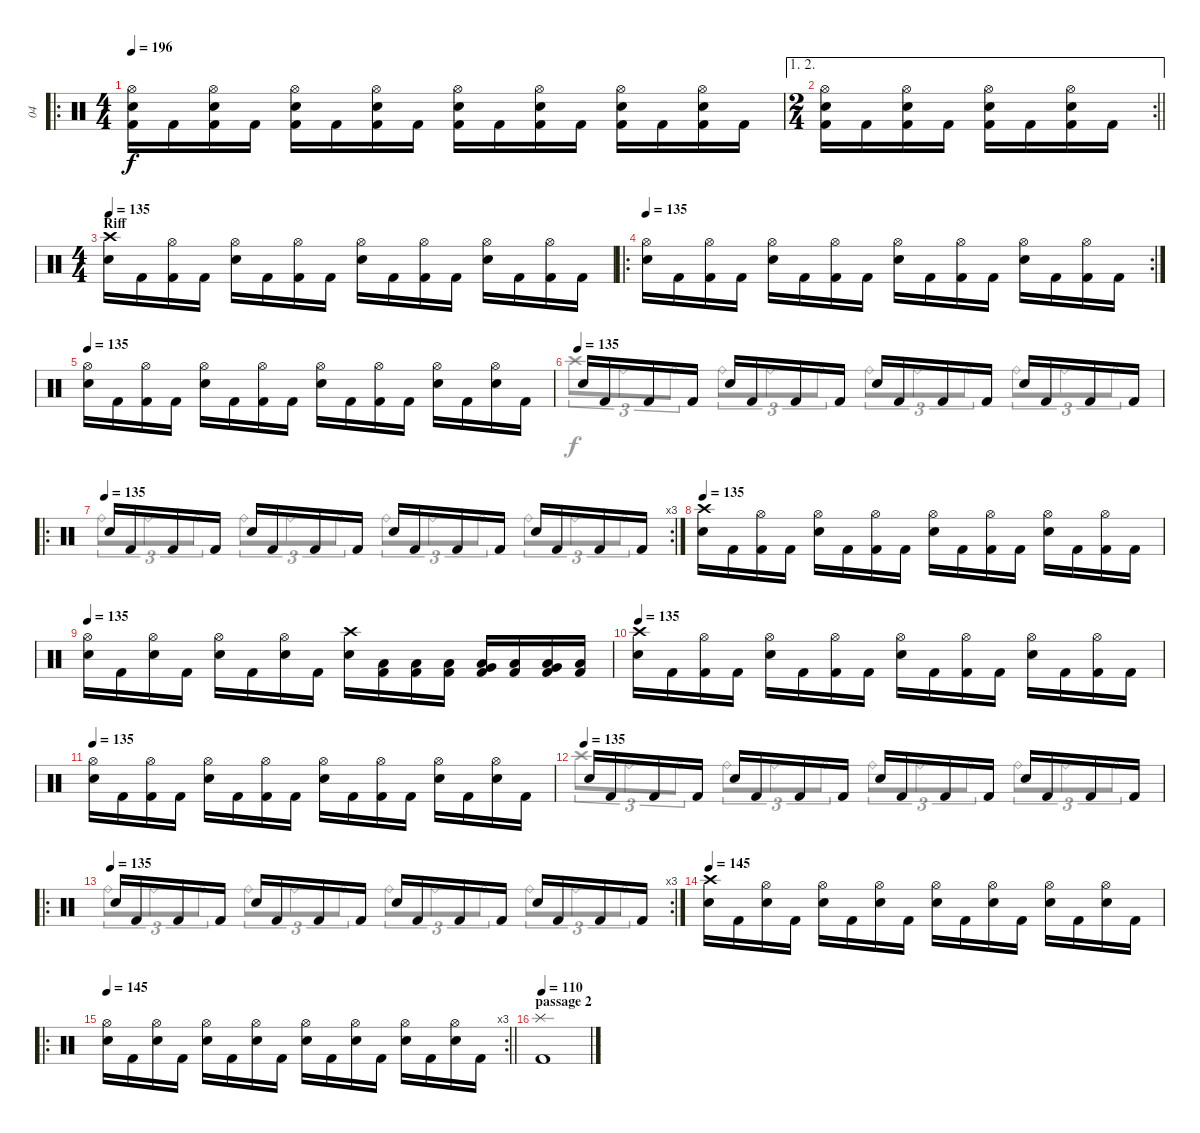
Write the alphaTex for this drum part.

\track ("04" "04") {instrument percussion}
\staff {score}
\articulation defaults
\voice
\ro
\ts (4 4)
\tempo 196
\clef neutral
\ks c
("Hi-Hat (open)" "Kick (hit) 2" "Electric Snare (hit)").16{dy f} "Kick (hit) 2".16 ("Hi-Hat (open)" "Kick (hit) 2" "Electric Snare (hit)").16 "Kick (hit) 2".16 ("Hi-Hat (open)" "Kick (hit) 2" "Electric Snare (hit)").16 "Kick (hit) 2".16 ("Hi-Hat (open)" "Kick (hit) 2" "Electric Snare (hit)").16 "Kick (hit) 2".16 ("Hi-Hat (open)" "Kick (hit) 2" "Electric Snare (hit)").16 "Kick (hit) 2".16 ("Hi-Hat (open)" "Kick (hit) 2" "Electric Snare (hit)").16 "Kick (hit) 2".16 ("Hi-Hat (open)" "Kick (hit) 2" "Electric Snare (hit)").16 "Kick (hit) 2".16 ("Hi-Hat (open)" "Kick (hit) 2" "Electric Snare (hit)").16 "Kick (hit) 2".16 |
\ae (1 2)
\rc 2
\ts (2 4)
\barLineRight lightlight
("Hi-Hat (open)" "Kick (hit) 2" "Electric Snare (hit)").16 "Kick (hit) 2".16 ("Hi-Hat (open)" "Kick (hit) 2" "Electric Snare (hit)").16 "Kick (hit) 2".16 ("Hi-Hat (open)" "Kick (hit) 2" "Electric Snare (hit)").16 "Kick (hit) 2".16 ("Hi-Hat (open)" "Kick (hit) 2" "Electric Snare (hit)").16 "Kick (hit) 2".16 |
\ts (4 4)
\section ("" "Riff")
\tempo 135
("Crash high (hit)" "Electric Snare (hit)").16 "Kick (hit) 2".16 ("Hi-Hat (open)" "Kick (hit) 2").16 "Kick (hit) 2".16 ("Hi-Hat (open)" "Electric Snare (hit)").16 "Kick (hit) 2".16 ("Hi-Hat (open)" "Kick (hit) 2").16 "Kick (hit) 2".16 ("Hi-Hat (open)" "Electric Snare (hit)").16 "Kick (hit) 2".16 ("Hi-Hat (open)" "Kick (hit) 2").16 "Kick (hit) 2".16 ("Hi-Hat (open)" "Electric Snare (hit)").16 "Kick (hit) 2".16 ("Hi-Hat (open)" "Kick (hit) 2").16 "Kick (hit) 2".16 |
\ro
\rc 2
\tempo 135
("Hi-Hat (open)" "Electric Snare (hit)").16 "Kick (hit) 2".16 ("Hi-Hat (open)" "Kick (hit) 2").16 "Kick (hit) 2".16 ("Hi-Hat (open)" "Electric Snare (hit)").16 "Kick (hit) 2".16 ("Hi-Hat (open)" "Kick (hit) 2").16 "Kick (hit) 2".16 ("Hi-Hat (open)" "Electric Snare (hit)").16 "Kick (hit) 2".16 ("Hi-Hat (open)" "Kick (hit) 2").16 "Kick (hit) 2".16 ("Hi-Hat (open)" "Electric Snare (hit)").16 "Kick (hit) 2".16 ("Hi-Hat (open)" "Kick (hit) 2").16 "Kick (hit) 2".16 |
\tempo 135
("Hi-Hat (open)" "Electric Snare (hit)").16 "Kick (hit) 2".16 ("Hi-Hat (open)" "Kick (hit) 2").16 "Kick (hit) 2".16 ("Hi-Hat (open)" "Electric Snare (hit)").16 "Kick (hit) 2".16 ("Hi-Hat (open)" "Kick (hit) 2").16 "Kick (hit) 2".16 ("Hi-Hat (open)" "Electric Snare (hit)").16 "Kick (hit) 2".16 ("Hi-Hat (open)" "Kick (hit) 2").16 "Kick (hit) 2".16 ("Hi-Hat (open)" "Electric Snare (hit)").16 "Kick (hit) 2".16 ("Hi-Hat (open)" "Electric Snare (hit)").16 "Kick (hit) 2".16 |
\tempo (135)
"Electric Snare (hit)".16 "Kick (hit) 2".16 "Kick (hit) 2".16 "Kick (hit) 2".16 "Electric Snare (hit)".16 "Kick (hit) 2".16 "Kick (hit) 2".16 "Kick (hit) 2".16 "Electric Snare (hit)".16 "Kick (hit) 2".16 "Kick (hit) 2".16 "Kick (hit) 2".16 "Electric Snare (hit)".16 "Kick (hit) 2".16 "Kick (hit) 2".16 "Kick (hit) 2".16 |
\ro
\rc 3
\tempo (135)
"Electric Snare (hit)".16 "Kick (hit) 2".16 "Kick (hit) 2".16 "Kick (hit) 2".16 "Electric Snare (hit)".16 "Kick (hit) 2".16 "Kick (hit) 2".16 "Kick (hit) 2".16 "Electric Snare (hit)".16 "Kick (hit) 2".16 "Kick (hit) 2".16 "Kick (hit) 2".16 "Electric Snare (hit)".16 "Kick (hit) 2".16 "Kick (hit) 2".16 "Kick (hit) 2".16 |
\tempo 135
("Crash high (hit)" "Electric Snare (hit)").16 "Kick (hit) 2".16 ("Hi-Hat (open)" "Kick (hit) 2").16 "Kick (hit) 2".16 ("Hi-Hat (open)" "Electric Snare (hit)").16 "Kick (hit) 2".16 ("Hi-Hat (open)" "Kick (hit) 2").16 "Kick (hit) 2".16 ("Hi-Hat (open)" "Electric Snare (hit)").16 "Kick (hit) 2".16 ("Hi-Hat (open)" "Kick (hit) 2").16 "Kick (hit) 2".16 ("Hi-Hat (open)" "Electric Snare (hit)").16 "Kick (hit) 2".16 ("Hi-Hat (open)" "Kick (hit) 2").16 "Kick (hit) 2".16 |
\tempo 135
("Hi-Hat (open)" "Electric Snare (hit)").16 "Kick (hit) 2".16 ("Hi-Hat (open)" "Electric Snare (hit)").16 "Kick (hit) 2".16 ("Hi-Hat (open)" "Electric Snare (hit)").16 "Kick (hit) 2".16 ("Hi-Hat (open)" "Electric Snare (hit)").16 "Kick (hit) 2".16 ("Crash high (hit)" "Electric Snare (hit)").16 ("Low Tom (hit)" "Kick (hit) 2").16 ("Low Tom (hit)" "Kick (hit) 2").16 ("Low Tom (hit)" "Kick (hit) 2").16 ("Very Low Tom (hit)" "Low Tom (hit)" "Kick (hit) 2").16 ("Low Tom (hit)" "Kick (hit) 2").16 ("Very Low Tom (hit)" "Low Tom (hit)" "Kick (hit) 2").16 ("Low Tom (hit)" "Kick (hit) 2").16 |
\tempo 135
("Crash high (hit)" "Electric Snare (hit)").16 "Kick (hit) 2".16 ("Hi-Hat (open)" "Kick (hit) 2").16 "Kick (hit) 2".16 ("Hi-Hat (open)" "Electric Snare (hit)").16 "Kick (hit) 2".16 ("Hi-Hat (open)" "Kick (hit) 2").16 "Kick (hit) 2".16 ("Hi-Hat (open)" "Electric Snare (hit)").16 "Kick (hit) 2".16 ("Hi-Hat (open)" "Kick (hit) 2").16 "Kick (hit) 2".16 ("Hi-Hat (open)" "Electric Snare (hit)").16 "Kick (hit) 2".16 ("Hi-Hat (open)" "Kick (hit) 2").16 "Kick (hit) 2".16 |
\tempo 135
("Hi-Hat (open)" "Electric Snare (hit)").16 "Kick (hit) 2".16 ("Hi-Hat (open)" "Kick (hit) 2").16 "Kick (hit) 2".16 ("Hi-Hat (open)" "Electric Snare (hit)").16 "Kick (hit) 2".16 ("Hi-Hat (open)" "Kick (hit) 2").16 "Kick (hit) 2".16 ("Hi-Hat (open)" "Electric Snare (hit)").16 "Kick (hit) 2".16 ("Hi-Hat (open)" "Kick (hit) 2").16 "Kick (hit) 2".16 ("Hi-Hat (open)" "Electric Snare (hit)").16 "Kick (hit) 2".16 ("Hi-Hat (open)" "Electric Snare (hit)").16 "Kick (hit) 2".16 |
\tempo (135)
"Electric Snare (hit)".16 "Kick (hit) 2".16 "Kick (hit) 2".16 "Kick (hit) 2".16 "Electric Snare (hit)".16 "Kick (hit) 2".16 "Kick (hit) 2".16 "Kick (hit) 2".16 "Electric Snare (hit)".16 "Kick (hit) 2".16 "Kick (hit) 2".16 "Kick (hit) 2".16 "Electric Snare (hit)".16 "Kick (hit) 2".16 "Kick (hit) 2".16 "Kick (hit) 2".16 |
\ro
\rc 3
\tempo (135)
"Electric Snare (hit)".16 "Kick (hit) 2".16 "Kick (hit) 2".16 "Kick (hit) 2".16 "Electric Snare (hit)".16 "Kick (hit) 2".16 "Kick (hit) 2".16 "Kick (hit) 2".16 "Electric Snare (hit)".16 "Kick (hit) 2".16 "Kick (hit) 2".16 "Kick (hit) 2".16 "Electric Snare (hit)".16 "Kick (hit) 2".16 "Kick (hit) 2".16 "Kick (hit) 2".16 |
\tempo 145
("Crash high (hit)" "Electric Snare (hit)").16 "Kick (hit) 2".16 ("Hi-Hat (open)" "Electric Snare (hit)").16 "Kick (hit) 2".16 ("Hi-Hat (open)" "Electric Snare (hit)").16 "Kick (hit) 2".16 ("Hi-Hat (open)" "Electric Snare (hit)").16 "Kick (hit) 2".16 ("Hi-Hat (open)" "Electric Snare (hit)").16 "Kick (hit) 2".16 ("Hi-Hat (open)" "Electric Snare (hit)").16 "Kick (hit) 2".16 ("Hi-Hat (open)" "Electric Snare (hit)").16 "Kick (hit) 2".16 ("Hi-Hat (open)" "Electric Snare (hit)").16 "Kick (hit) 2".16 |
\ro
\rc 3
\tempo 145
\barLineRight lightlight
("Hi-Hat (open)" "Electric Snare (hit)").16 "Kick (hit) 2".16 ("Hi-Hat (open)" "Electric Snare (hit)").16 "Kick (hit) 2".16 ("Hi-Hat (open)" "Electric Snare (hit)").16 "Kick (hit) 2".16 ("Hi-Hat (open)" "Electric Snare (hit)").16 "Kick (hit) 2".16 ("Hi-Hat (open)" "Electric Snare (hit)").16 "Kick (hit) 2".16 ("Hi-Hat (open)" "Electric Snare (hit)").16 "Kick (hit) 2".16 ("Hi-Hat (open)" "Electric Snare (hit)").16 "Kick (hit) 2".16 ("Hi-Hat (open)" "Electric Snare (hit)").16 "Kick (hit) 2".16 |
\section ("" "passage 2")
\tempo 110
("Splash (hit)" "Kick (hit) 2").1
\voice
\clef neutral
\ottava regular
\simile none
\ks c
|
\barLineRight lightlight
|
|
|
|
"Crash high (hit)".8{tu (3 2)} "Ride (bell)".8{tu (3 2)} "Ride (bell)".8{tu (3 2)} "Ride (bell)".8{tu (3 2)} "Ride (bell)".8{tu (3 2)} "Ride (bell)".8{tu (3 2)} "Ride (bell)".8{tu (3 2)} "Ride (bell)".8{tu (3 2)} "Ride (bell)".8{tu (3 2)} "Ride (bell)".8{tu (3 2)} "Ride (bell)".8{tu (3 2)} "Ride (bell)".8{tu (3 2)} |
"Ride (bell)".8{tu (3 2)} "Ride (bell)".8{tu (3 2)} "Ride (bell)".8{tu (3 2)} "Ride (bell)".8{tu (3 2)} "Ride (bell)".8{tu (3 2)} "Ride (bell)".8{tu (3 2)} "Ride (bell)".8{tu (3 2)} "Ride (bell)".8{tu (3 2)} "Ride (bell)".8{tu (3 2)} "Ride (bell)".8{tu (3 2)} "Ride (bell)".8{tu (3 2)} "Ride (bell)".8{tu (3 2)} |
|
|
|
|
"Crash high (hit)".8{tu (3 2)} "Ride (bell)".8{tu (3 2)} "Ride (bell)".8{tu (3 2)} "Ride (bell)".8{tu (3 2)} "Ride (bell)".8{tu (3 2)} "Ride (bell)".8{tu (3 2)} "Ride (bell)".8{tu (3 2)} "Ride (bell)".8{tu (3 2)} "Ride (bell)".8{tu (3 2)} "Ride (bell)".8{tu (3 2)} "Ride (bell)".8{tu (3 2)} "Ride (bell)".8{tu (3 2)} |
"Ride (bell)".8{tu (3 2)} "Ride (bell)".8{tu (3 2)} "Ride (bell)".8{tu (3 2)} "Ride (bell)".8{tu (3 2)} "Ride (bell)".8{tu (3 2)} "Ride (bell)".8{tu (3 2)} "Ride (bell)".8{tu (3 2)} "Ride (bell)".8{tu (3 2)} "Ride (bell)".8{tu (3 2)} "Ride (bell)".8{tu (3 2)} "Ride (bell)".8{tu (3 2)} "Ride (bell)".8{tu (3 2)} |
|
\barLineRight lightlight
|
